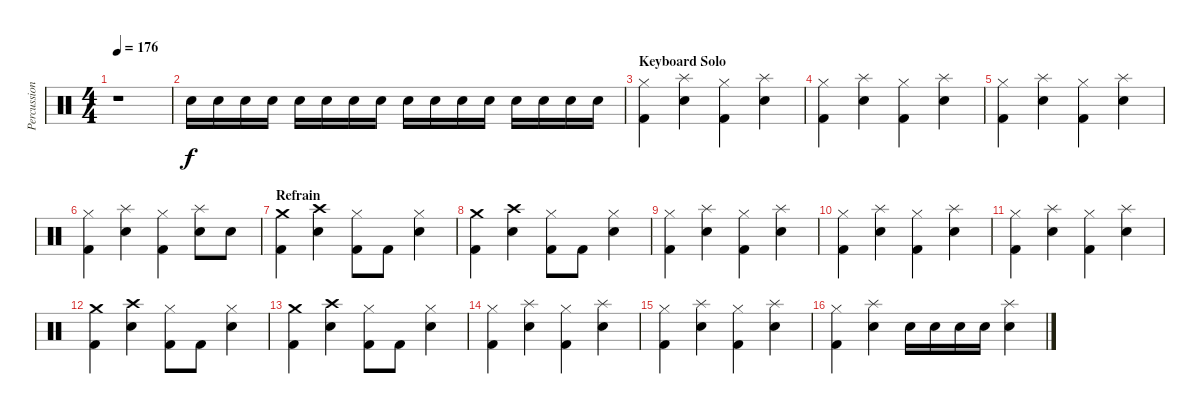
\track ("Percussion" "Percussion") {instrument percussion}
\staff {score}
\articulation defaults
\ts (4 4)
\tempo 176
\clef neutral
\ks c
r.1{dy f} |
"Snare (hit) 2".16 "Snare (hit) 2".16 "Snare (hit) 2".16 "Snare (hit) 2".16 "Snare (hit) 2".16 "Snare (hit) 2".16 "Snare (hit) 2".16 "Snare (hit) 2".16 "Snare (hit) 2".16 "Snare (hit) 2".16 "Snare (hit) 2".16 "Snare (hit) 2".16 "Snare (hit) 2".16 "Snare (hit) 2".16 "Snare (hit) 2".16 "Snare (hit) 2".16 |
\section ("" "Keyboard Solo")
("Hi-Hat (closed)" "Kick (hit) 2").4 ("Splash (hit)" "Snare (hit) 2").4 ("Hi-Hat (closed)" "Kick (hit) 2").4 ("Splash (hit)" "Snare (hit) 2").4 |
("Hi-Hat (closed)" "Kick (hit) 2").4 ("Splash (hit)" "Snare (hit) 2").4 ("Hi-Hat (closed)" "Kick (hit) 2").4 ("Splash (hit)" "Snare (hit) 2").4 |
("Hi-Hat (closed)" "Kick (hit) 2").4 ("Splash (hit)" "Snare (hit) 2").4 ("Hi-Hat (closed)" "Kick (hit) 2").4 ("Splash (hit)" "Snare (hit) 2").4 |
("Hi-Hat (closed)" "Kick (hit) 2").4 ("Splash (hit)" "Snare (hit) 2").4 ("Hi-Hat (closed)" "Kick (hit) 2").4 ("Splash (hit)" "Snare (hit) 2").8 "Snare (hit) 2".8 |
\section ("" "Refrain")
("Crash medium (hit)" "Kick (hit) 2").4 ("Crash high (hit)" "Snare (hit) 2").4 ("Hi-Hat (closed)" "Kick (hit) 2").8 "Kick (hit) 2".8 ("Hi-Hat (closed)" "Snare (hit) 2").4 |
("Crash medium (hit)" "Kick (hit) 2").4 ("Crash high (hit)" "Snare (hit) 2").4 ("Hi-Hat (closed)" "Kick (hit) 2").8 "Kick (hit) 2".8 ("Hi-Hat (closed)" "Snare (hit) 2").4 |
("Hi-Hat (closed)" "Kick (hit) 2").4 ("Splash (hit)" "Snare (hit) 2").4 ("Hi-Hat (closed)" "Kick (hit) 2").4 ("Splash (hit)" "Snare (hit) 2").4 |
("Hi-Hat (closed)" "Kick (hit) 2").4 ("Splash (hit)" "Snare (hit) 2").4 ("Hi-Hat (closed)" "Kick (hit) 2").4 ("Splash (hit)" "Snare (hit) 2").4 |
("Hi-Hat (closed)" "Kick (hit) 2").4 ("Splash (hit)" "Snare (hit) 2").4 ("Hi-Hat (closed)" "Kick (hit) 2").4 ("Splash (hit)" "Snare (hit) 2").4 |
("Crash medium (hit)" "Kick (hit) 2").4 ("Crash high (hit)" "Snare (hit) 2").4 ("Hi-Hat (closed)" "Kick (hit) 2").8 "Kick (hit) 2".8 ("Hi-Hat (closed)" "Snare (hit) 2").4 |
("Crash medium (hit)" "Kick (hit) 2").4 ("Crash high (hit)" "Snare (hit) 2").4 ("Hi-Hat (closed)" "Kick (hit) 2").8 "Kick (hit) 2".8 ("Hi-Hat (closed)" "Snare (hit) 2").4 |
("Hi-Hat (closed)" "Kick (hit) 2").4 ("Splash (hit)" "Snare (hit) 2").4 ("Hi-Hat (closed)" "Kick (hit) 2").4 ("Splash (hit)" "Snare (hit) 2").4 |
("Hi-Hat (closed)" "Kick (hit) 2").4 ("Splash (hit)" "Snare (hit) 2").4 ("Hi-Hat (closed)" "Kick (hit) 2").4 ("Splash (hit)" "Snare (hit) 2").4 |
("Hi-Hat (closed)" "Kick (hit) 2").4 ("Splash (hit)" "Snare (hit) 2").4 "Snare (hit) 2".16 "Snare (hit) 2".16 "Snare (hit) 2".16 "Snare (hit) 2".16 ("Splash (hit)" "Snare (hit) 2").4
